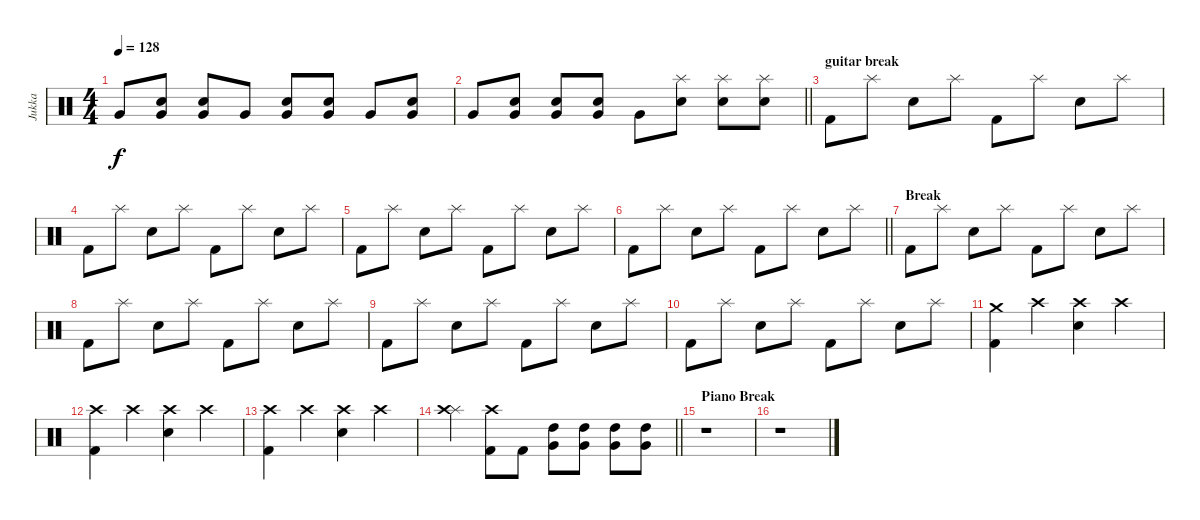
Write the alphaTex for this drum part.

\track ("Jukka" "Jukka") {instrument percussion}
\staff {score}
\articulation defaults
\ts (4 4)
\tempo 128
\clef neutral
\ks c "Very Low Tom (hit)".8{dy f}
("Electric Snare (hit)" "Very Low Tom (hit)").8 ("Electric Snare (hit)" "Very Low Tom (hit)").8 "Very Low Tom (hit)".8 ("Electric Snare (hit)" "Very Low Tom (hit)").8 ("Electric Snare (hit)" "Very Low Tom (hit)").8 "Very Low Tom (hit)".8 ("Electric Snare (hit)" "Very Low Tom (hit)").8 |
\barLineRight lightlight "Very Low Tom (hit)".8
("Electric Snare (hit)" "Very Low Tom (hit)").8 ("Electric Snare (hit)" "Very Low Tom (hit)").8 ("Electric Snare (hit)" "Very Low Tom (hit)").8 "Very Low Tom (hit)".8 ("Electric Snare (hit)" "Splash (hit)").8 ("Electric Snare (hit)" "Splash (hit)").8 ("Electric Snare (hit)" "Splash (hit)").8 |
\section ("" "guitar break")
"Kick (hit) 2".8 "Splash (hit)".8 "Electric Snare (hit)".8 "Splash (hit)".8 "Kick (hit) 2".8 "Splash (hit)".8 "Electric Snare (hit)".8 "Splash (hit)".8 |
"Kick (hit) 2".8 "Splash (hit)".8 "Electric Snare (hit)".8 "Splash (hit)".8 "Kick (hit) 2".8 "Splash (hit)".8 "Electric Snare (hit)".8 "Splash (hit)".8 |
"Kick (hit) 2".8 "Splash (hit)".8 "Electric Snare (hit)".8 "Splash (hit)".8 "Kick (hit) 2".8 "Splash (hit)".8 "Electric Snare (hit)".8 "Splash (hit)".8 |
\barLineRight lightlight "Kick (hit) 2".8 "Splash (hit)".8 "Electric Snare (hit)".8 "Splash (hit)".8 "Kick (hit) 2".8 "Splash (hit)".8 "Electric Snare (hit)".8 "Splash (hit)".8
|
\section ("" "Break")
"Kick (hit) 2".8 "Splash (hit)".8 "Electric Snare (hit)".8 "Splash (hit)".8 "Kick (hit) 2".8 "Splash (hit)".8 "Electric Snare (hit)".8 "Splash (hit)".8 |
"Kick (hit) 2".8 "Splash (hit)".8 "Electric Snare (hit)".8 "Splash (hit)".8 "Kick (hit) 2".8 "Splash (hit)".8 "Electric Snare (hit)".8 "Splash (hit)".8 |
"Kick (hit) 2".8 "Splash (hit)".8 "Electric Snare (hit)".8 "Splash (hit)".8 "Kick (hit) 2".8 "Splash (hit)".8 "Electric Snare (hit)".8 "Splash (hit)".8 |
"Kick (hit) 2".8 "Splash (hit)".8 "Electric Snare (hit)".8 "Splash (hit)".8 "Kick (hit) 2".8 "Splash (hit)".8 "Electric Snare (hit)".8 "Splash (hit)".8 |
("Kick (hit) 2" "Crash medium (hit)").4 "Crash high (hit)".4 ("Electric Snare (hit)" "Crash high (hit)").4 "Crash high (hit)".4 |
("Kick (hit) 2" "Crash high (hit)").4 "Crash high (hit)".4 ("Electric Snare (hit)" "Crash high (hit)").4 "Crash high (hit)".4 |
("Kick (hit) 2" "Crash high (hit)").4 "Crash high (hit)".4 ("Electric Snare (hit)" "Crash high (hit)").4 "Crash high (hit)".4 |
\barLineRight lightlight
("Splash (hit)" "Crash high (hit)").4 ("Kick (hit) 2" "Crash high (hit)").8 "Kick (hit) 2".8 ("Very Low Tom (hit)" "High Tom (hit)").8 ("Very Low Tom (hit)" "High Tom (hit)").8 ("Very Low Tom (hit)" "High Tom (hit)").8 ("Very Low Tom (hit)" "High Tom (hit)").8 |
\section ("" "Piano Break")
r.1 |
r.1
